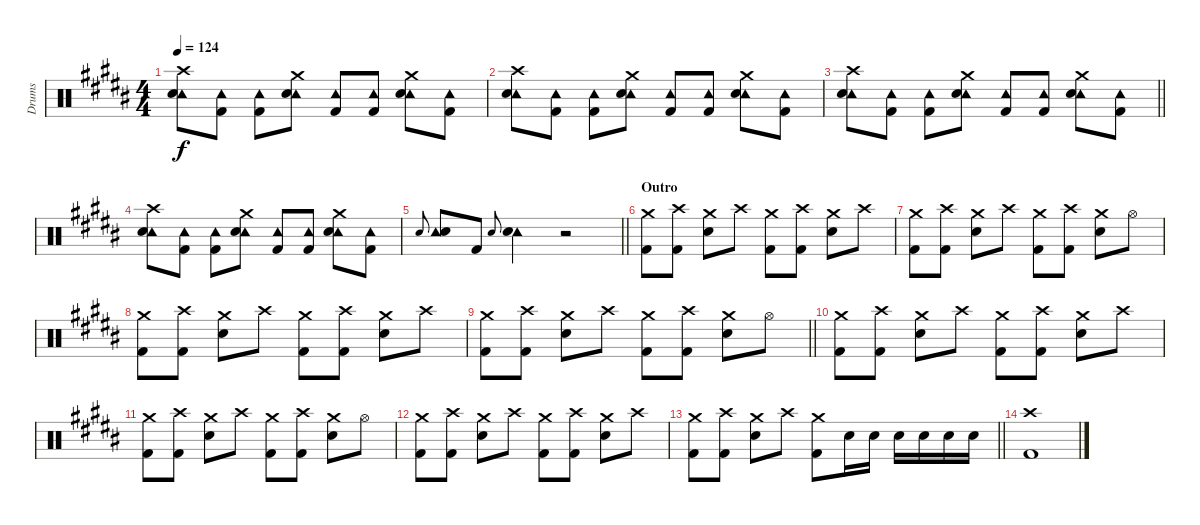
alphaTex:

\track ("Drums" "Drums") {instrument percussion}
\staff {score}
\articulation defaults
\ts (4 4)
\tempo 124
\clef neutral
\ks b
("Crash high (hit)" "Tambourine (hit)" "Snare (hit) 2").8{dy f} ("Tambourine (hit)" "Kick (hit) 2").8 ("Tambourine (hit)" "Kick (hit) 2").8 ("Crash medium (hit)" "Tambourine (hit)" "Snare (hit) 2").8 ("Tambourine (hit)" "Kick (hit) 2").8 ("Tambourine (hit)" "Kick (hit) 2").8 ("Crash medium (hit)" "Tambourine (hit)" "Snare (hit) 2").8 ("Tambourine (hit)" "Kick (hit) 2").8 |
("Crash high (hit)" "Tambourine (hit)" "Snare (hit) 2").8 ("Tambourine (hit)" "Kick (hit) 2").8 ("Tambourine (hit)" "Kick (hit) 2").8 ("Crash medium (hit)" "Tambourine (hit)" "Snare (hit) 2").8 ("Tambourine (hit)" "Kick (hit) 2").8 ("Tambourine (hit)" "Kick (hit) 2").8 ("Crash medium (hit)" "Tambourine (hit)" "Snare (hit) 2").8 ("Tambourine (hit)" "Kick (hit) 2").8 |
\barLineRight lightlight
("Crash high (hit)" "Tambourine (hit)" "Snare (hit) 2").8 ("Tambourine (hit)" "Kick (hit) 2").8 ("Tambourine (hit)" "Kick (hit) 2").8 ("Crash medium (hit)" "Tambourine (hit)" "Snare (hit) 2").8 ("Tambourine (hit)" "Kick (hit) 2").8 ("Tambourine (hit)" "Kick (hit) 2").8 ("Crash medium (hit)" "Tambourine (hit)" "Snare (hit) 2").8 ("Tambourine (hit)" "Kick (hit) 2").8 |
("Crash high (hit)" "Tambourine (hit)" "Snare (hit) 2").8 ("Tambourine (hit)" "Kick (hit) 2").8 ("Tambourine (hit)" "Kick (hit) 2").8 ("Crash medium (hit)" "Tambourine (hit)" "Snare (hit) 2").8 ("Tambourine (hit)" "Kick (hit) 2").8 ("Tambourine (hit)" "Kick (hit) 2").8 ("Crash medium (hit)" "Tambourine (hit)" "Snare (hit) 2").8 ("Tambourine (hit)" "Kick (hit) 2").8 |
\barLineRight lightlight "Snare (hit) 2".8{gr onbeat}
("Tambourine (hit)" "Snare (hit) 2").8 "Kick (hit) 2".8 "Snare (hit) 2".8{gr onbeat} ("Tambourine (hit)" "Snare (hit) 2").4 r.2 |
\section ("" "Outro")
("Crash medium (hit)" "Kick (hit) 2").8 ("Crash high (hit)" "Kick (hit) 2").8 ("Crash medium (hit)" "Snare (hit) 2").8 "Crash high (hit)".8 ("Crash medium (hit)" "Kick (hit) 2").8 ("Crash high (hit)" "Kick (hit) 2").8 ("Crash medium (hit)" "Snare (hit) 2").8 "Crash high (hit)".8 |
("Crash medium (hit)" "Kick (hit) 2").8 ("Crash high (hit)" "Kick (hit) 2").8 ("Crash medium (hit)" "Snare (hit) 2").8 "Crash high (hit)".8 ("Crash medium (hit)" "Kick (hit) 2").8 ("Crash high (hit)" "Kick (hit) 2").8 ("Crash medium (hit)" "Snare (hit) 2").8 "Hi-Hat (open)".8 |
("Crash medium (hit)" "Kick (hit) 2").8 ("Crash high (hit)" "Kick (hit) 2").8 ("Crash medium (hit)" "Snare (hit) 2").8 "Crash high (hit)".8 ("Crash medium (hit)" "Kick (hit) 2").8 ("Crash high (hit)" "Kick (hit) 2").8 ("Crash medium (hit)" "Snare (hit) 2").8 "Crash high (hit)".8 |
\barLineRight lightlight
("Crash medium (hit)" "Kick (hit) 2").8 ("Crash high (hit)" "Kick (hit) 2").8 ("Crash medium (hit)" "Snare (hit) 2").8 "Crash high (hit)".8 ("Crash medium (hit)" "Kick (hit) 2").8 ("Crash high (hit)" "Kick (hit) 2").8 ("Crash medium (hit)" "Snare (hit) 2").8 "Hi-Hat (open)".8 |
("Crash medium (hit)" "Kick (hit) 2").8 ("Crash high (hit)" "Kick (hit) 2").8 ("Crash medium (hit)" "Snare (hit) 2").8 "Crash high (hit)".8 ("Crash medium (hit)" "Kick (hit) 2").8 ("Crash high (hit)" "Kick (hit) 2").8 ("Crash medium (hit)" "Snare (hit) 2").8 "Crash high (hit)".8 |
("Crash medium (hit)" "Kick (hit) 2").8 ("Crash high (hit)" "Kick (hit) 2").8 ("Crash medium (hit)" "Snare (hit) 2").8 "Crash high (hit)".8 ("Crash medium (hit)" "Kick (hit) 2").8 ("Crash high (hit)" "Kick (hit) 2").8 ("Crash medium (hit)" "Snare (hit) 2").8 "Hi-Hat (open)".8 |
("Crash medium (hit)" "Kick (hit) 2").8 ("Crash high (hit)" "Kick (hit) 2").8 ("Crash medium (hit)" "Snare (hit) 2").8 "Crash high (hit)".8 ("Crash medium (hit)" "Kick (hit) 2").8 ("Crash high (hit)" "Kick (hit) 2").8 ("Crash medium (hit)" "Snare (hit) 2").8 "Crash high (hit)".8 |
\barLineRight lightlight
("Crash medium (hit)" "Kick (hit) 2").8 ("Crash high (hit)" "Kick (hit) 2").8 ("Crash medium (hit)" "Snare (hit) 2").8 "Crash high (hit)".8 ("Crash medium (hit)" "Kick (hit) 2").8 "Snare (hit) 2".16 "Snare (hit) 2".16 "Snare (hit) 2".16 "Snare (hit) 2".16 "Snare (hit) 2".16 "Snare (hit) 2".16 |
("Crash high (hit)" "Kick (hit) 2").1
